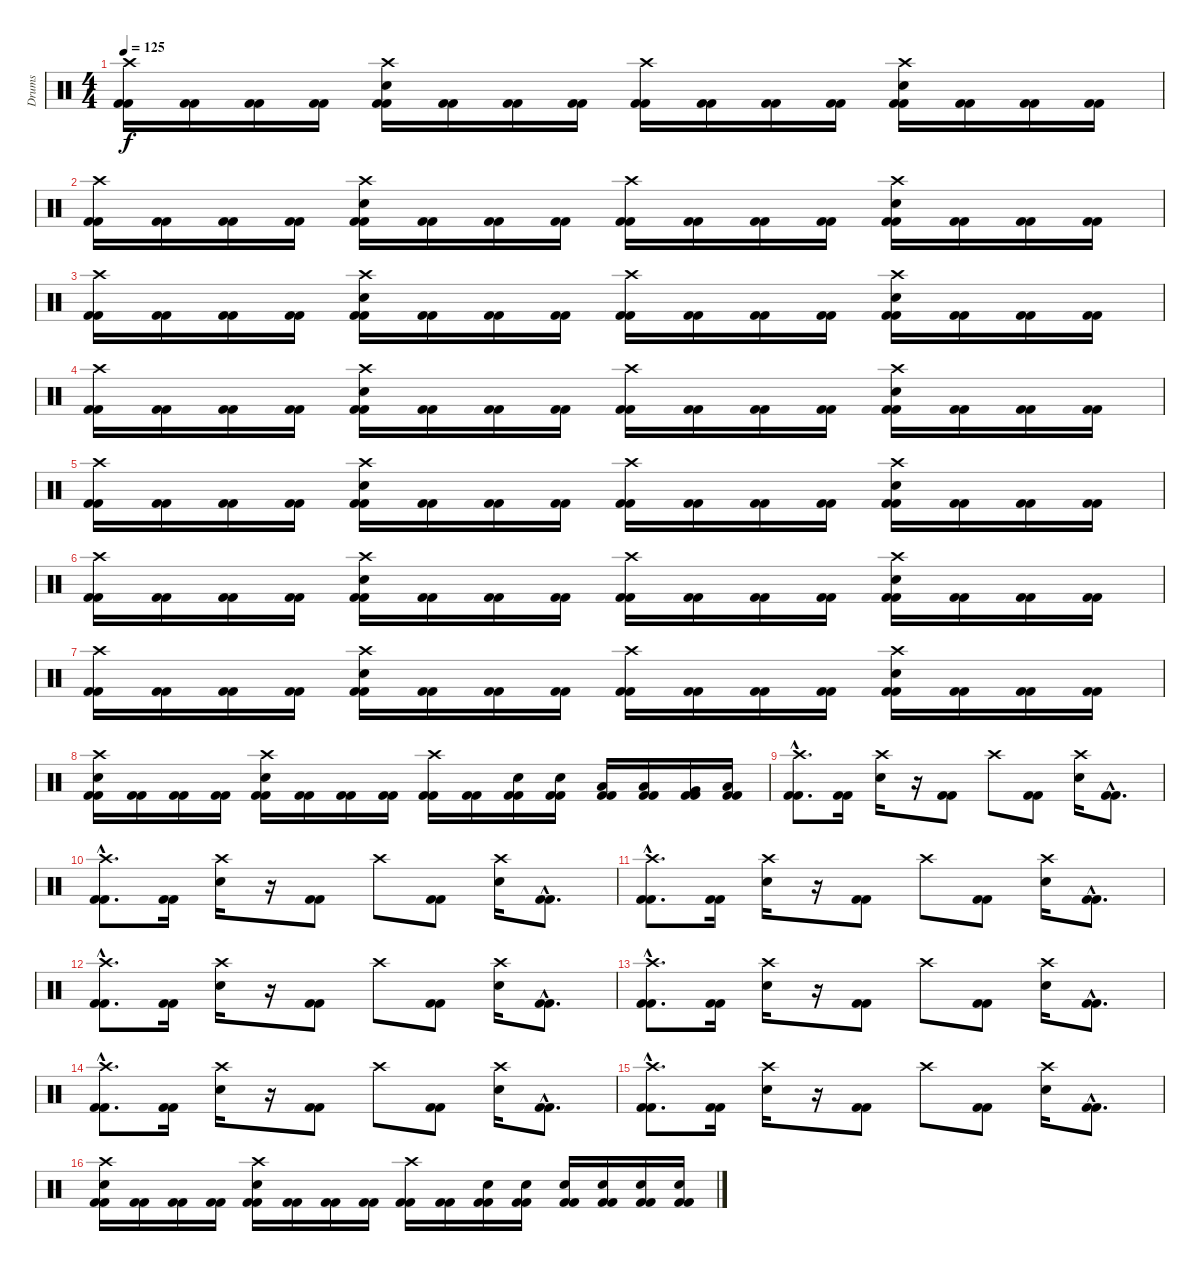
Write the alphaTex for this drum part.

\track ("Drums" "Drums") {instrument percussion}
\staff {score}
\articulation defaults
\ts (4 4)
\tempo 125
\clef neutral
\ks c
("Crash high (hit)" "Kick (hit) 2" "Kick (hit) 2").16{dy f} ("Kick (hit) 2" "Kick (hit) 2").16 ("Kick (hit) 2" "Kick (hit) 2").16 ("Kick (hit) 2" "Kick (hit) 2").16 ("Crash high (hit)" "Snare (hit) 2" "Kick (hit) 2" "Kick (hit) 2").16 ("Kick (hit) 2" "Kick (hit) 2").16 ("Kick (hit) 2" "Kick (hit) 2").16 ("Kick (hit) 2" "Kick (hit) 2").16 ("Crash high (hit)" "Kick (hit) 2" "Kick (hit) 2").16 ("Kick (hit) 2" "Kick (hit) 2").16 ("Kick (hit) 2" "Kick (hit) 2").16 ("Kick (hit) 2" "Kick (hit) 2").16 ("Crash high (hit)" "Snare (hit) 2" "Kick (hit) 2" "Kick (hit) 2").16 ("Kick (hit) 2" "Kick (hit) 2").16 ("Kick (hit) 2" "Kick (hit) 2").16 ("Kick (hit) 2" "Kick (hit) 2").16 |
("Crash high (hit)" "Kick (hit) 2" "Kick (hit) 2").16 ("Kick (hit) 2" "Kick (hit) 2").16 ("Kick (hit) 2" "Kick (hit) 2").16 ("Kick (hit) 2" "Kick (hit) 2").16 ("Crash high (hit)" "Snare (hit) 2" "Kick (hit) 2" "Kick (hit) 2").16 ("Kick (hit) 2" "Kick (hit) 2").16 ("Kick (hit) 2" "Kick (hit) 2").16 ("Kick (hit) 2" "Kick (hit) 2").16 ("Crash high (hit)" "Kick (hit) 2" "Kick (hit) 2").16 ("Kick (hit) 2" "Kick (hit) 2").16 ("Kick (hit) 2" "Kick (hit) 2").16 ("Kick (hit) 2" "Kick (hit) 2").16 ("Crash high (hit)" "Snare (hit) 2" "Kick (hit) 2" "Kick (hit) 2").16 ("Kick (hit) 2" "Kick (hit) 2").16 ("Kick (hit) 2" "Kick (hit) 2").16 ("Kick (hit) 2" "Kick (hit) 2").16 |
("Crash high (hit)" "Kick (hit) 2" "Kick (hit) 2").16 ("Kick (hit) 2" "Kick (hit) 2").16 ("Kick (hit) 2" "Kick (hit) 2").16 ("Kick (hit) 2" "Kick (hit) 2").16 ("Crash high (hit)" "Snare (hit) 2" "Kick (hit) 2" "Kick (hit) 2").16 ("Kick (hit) 2" "Kick (hit) 2").16 ("Kick (hit) 2" "Kick (hit) 2").16 ("Kick (hit) 2" "Kick (hit) 2").16 ("Crash high (hit)" "Kick (hit) 2" "Kick (hit) 2").16 ("Kick (hit) 2" "Kick (hit) 2").16 ("Kick (hit) 2" "Kick (hit) 2").16 ("Kick (hit) 2" "Kick (hit) 2").16 ("Crash high (hit)" "Snare (hit) 2" "Kick (hit) 2" "Kick (hit) 2").16 ("Kick (hit) 2" "Kick (hit) 2").16 ("Kick (hit) 2" "Kick (hit) 2").16 ("Kick (hit) 2" "Kick (hit) 2").16 |
("Crash high (hit)" "Kick (hit) 2" "Kick (hit) 2").16 ("Kick (hit) 2" "Kick (hit) 2").16 ("Kick (hit) 2" "Kick (hit) 2").16 ("Kick (hit) 2" "Kick (hit) 2").16 ("Crash high (hit)" "Snare (hit) 2" "Kick (hit) 2" "Kick (hit) 2").16 ("Kick (hit) 2" "Kick (hit) 2").16 ("Kick (hit) 2" "Kick (hit) 2").16 ("Kick (hit) 2" "Kick (hit) 2").16 ("Crash high (hit)" "Kick (hit) 2" "Kick (hit) 2").16 ("Kick (hit) 2" "Kick (hit) 2").16 ("Kick (hit) 2" "Kick (hit) 2").16 ("Kick (hit) 2" "Kick (hit) 2").16 ("Crash high (hit)" "Snare (hit) 2" "Kick (hit) 2" "Kick (hit) 2").16 ("Kick (hit) 2" "Kick (hit) 2").16 ("Kick (hit) 2" "Kick (hit) 2").16 ("Kick (hit) 2" "Kick (hit) 2").16 |
("Crash high (hit)" "Kick (hit) 2" "Kick (hit) 2").16 ("Kick (hit) 2" "Kick (hit) 2").16 ("Kick (hit) 2" "Kick (hit) 2").16 ("Kick (hit) 2" "Kick (hit) 2").16 ("Crash high (hit)" "Snare (hit) 2" "Kick (hit) 2" "Kick (hit) 2").16 ("Kick (hit) 2" "Kick (hit) 2").16 ("Kick (hit) 2" "Kick (hit) 2").16 ("Kick (hit) 2" "Kick (hit) 2").16 ("Crash high (hit)" "Kick (hit) 2" "Kick (hit) 2").16 ("Kick (hit) 2" "Kick (hit) 2").16 ("Kick (hit) 2" "Kick (hit) 2").16 ("Kick (hit) 2" "Kick (hit) 2").16 ("Crash high (hit)" "Snare (hit) 2" "Kick (hit) 2" "Kick (hit) 2").16 ("Kick (hit) 2" "Kick (hit) 2").16 ("Kick (hit) 2" "Kick (hit) 2").16 ("Kick (hit) 2" "Kick (hit) 2").16 |
("Crash high (hit)" "Kick (hit) 2" "Kick (hit) 2").16 ("Kick (hit) 2" "Kick (hit) 2").16 ("Kick (hit) 2" "Kick (hit) 2").16 ("Kick (hit) 2" "Kick (hit) 2").16 ("Crash high (hit)" "Snare (hit) 2" "Kick (hit) 2" "Kick (hit) 2").16 ("Kick (hit) 2" "Kick (hit) 2").16 ("Kick (hit) 2" "Kick (hit) 2").16 ("Kick (hit) 2" "Kick (hit) 2").16 ("Crash high (hit)" "Kick (hit) 2" "Kick (hit) 2").16 ("Kick (hit) 2" "Kick (hit) 2").16 ("Kick (hit) 2" "Kick (hit) 2").16 ("Kick (hit) 2" "Kick (hit) 2").16 ("Crash high (hit)" "Snare (hit) 2" "Kick (hit) 2" "Kick (hit) 2").16 ("Kick (hit) 2" "Kick (hit) 2").16 ("Kick (hit) 2" "Kick (hit) 2").16 ("Kick (hit) 2" "Kick (hit) 2").16 |
("Crash high (hit)" "Kick (hit) 2" "Kick (hit) 2").16 ("Kick (hit) 2" "Kick (hit) 2").16 ("Kick (hit) 2" "Kick (hit) 2").16 ("Kick (hit) 2" "Kick (hit) 2").16 ("Crash high (hit)" "Snare (hit) 2" "Kick (hit) 2" "Kick (hit) 2").16 ("Kick (hit) 2" "Kick (hit) 2").16 ("Kick (hit) 2" "Kick (hit) 2").16 ("Kick (hit) 2" "Kick (hit) 2").16 ("Crash high (hit)" "Kick (hit) 2" "Kick (hit) 2").16 ("Kick (hit) 2" "Kick (hit) 2").16 ("Kick (hit) 2" "Kick (hit) 2").16 ("Kick (hit) 2" "Kick (hit) 2").16 ("Crash high (hit)" "Snare (hit) 2" "Kick (hit) 2" "Kick (hit) 2").16 ("Kick (hit) 2" "Kick (hit) 2").16 ("Kick (hit) 2" "Kick (hit) 2").16 ("Kick (hit) 2" "Kick (hit) 2").16 |
("Crash high (hit)" "Snare (hit) 2" "Kick (hit) 2" "Kick (hit) 2").16 ("Kick (hit) 2" "Kick (hit) 2").16 ("Kick (hit) 2" "Kick (hit) 2").16 ("Kick (hit) 2" "Kick (hit) 2").16 ("Crash high (hit)" "Snare (hit) 2" "Kick (hit) 2" "Kick (hit) 2").16 ("Kick (hit) 2" "Kick (hit) 2").16 ("Kick (hit) 2" "Kick (hit) 2").16 ("Kick (hit) 2" "Kick (hit) 2").16 ("Crash high (hit)" "Kick (hit) 2" "Kick (hit) 2").16 ("Kick (hit) 2" "Kick (hit) 2").16 ("Snare (hit) 2" "Kick (hit) 2" "Kick (hit) 2").16 ("Snare (hit) 2" "Kick (hit) 2" "Kick (hit) 2").16 ("Low Tom (hit)" "Kick (hit) 2" "Kick (hit) 2").16 ("Low Tom (hit)" "Kick (hit) 2" "Kick (hit) 2").16 ("Very Low Tom (hit)" "Kick (hit) 2" "Kick (hit) 2").16 ("Low Floor Tom (hit)" "Kick (hit) 2" "Kick (hit) 2").16 |
("Crash high (hit)"{hac} "Kick (hit) 2"{hac} "Kick (hit) 2"{hac}).8{d} ("Kick (hit) 2" "Kick (hit) 2").16 ("Crash high (hit)" "Snare (hit) 2").16 r.16 ("Kick (hit) 2" "Kick (hit) 2").8 "Crash high (hit)".8 ("Kick (hit) 2" "Kick (hit) 2").8 ("Crash high (hit)" "Snare (hit) 2").16 ("Kick (hit) 2"{hac} "Kick (hit) 2"{hac}).8{d} |
("Crash high (hit)"{hac} "Kick (hit) 2"{hac} "Kick (hit) 2"{hac}).8{d} ("Kick (hit) 2" "Kick (hit) 2").16 ("Crash high (hit)" "Snare (hit) 2").16 r.16 ("Kick (hit) 2" "Kick (hit) 2").8 "Crash high (hit)".8 ("Kick (hit) 2" "Kick (hit) 2").8 ("Crash high (hit)" "Snare (hit) 2").16 ("Kick (hit) 2"{hac} "Kick (hit) 2"{hac}).8{d} |
("Crash high (hit)"{hac} "Kick (hit) 2"{hac} "Kick (hit) 2"{hac}).8{d} ("Kick (hit) 2" "Kick (hit) 2").16 ("Crash high (hit)" "Snare (hit) 2").16 r.16 ("Kick (hit) 2" "Kick (hit) 2").8 "Crash high (hit)".8 ("Kick (hit) 2" "Kick (hit) 2").8 ("Crash high (hit)" "Snare (hit) 2").16 ("Kick (hit) 2"{hac} "Kick (hit) 2"{hac}).8{d} |
("Crash high (hit)"{hac} "Kick (hit) 2"{hac} "Kick (hit) 2"{hac}).8{d} ("Kick (hit) 2" "Kick (hit) 2").16 ("Crash high (hit)" "Snare (hit) 2").16 r.16 ("Kick (hit) 2" "Kick (hit) 2").8 "Crash high (hit)".8 ("Kick (hit) 2" "Kick (hit) 2").8 ("Crash high (hit)" "Snare (hit) 2").16 ("Kick (hit) 2"{hac} "Kick (hit) 2"{hac}).8{d} |
("Crash high (hit)"{hac} "Kick (hit) 2"{hac} "Kick (hit) 2"{hac}).8{d} ("Kick (hit) 2" "Kick (hit) 2").16 ("Crash high (hit)" "Snare (hit) 2").16 r.16 ("Kick (hit) 2" "Kick (hit) 2").8 "Crash high (hit)".8 ("Kick (hit) 2" "Kick (hit) 2").8 ("Crash high (hit)" "Snare (hit) 2").16 ("Kick (hit) 2"{hac} "Kick (hit) 2"{hac}).8{d} |
("Crash high (hit)"{hac} "Kick (hit) 2"{hac} "Kick (hit) 2"{hac}).8{d} ("Kick (hit) 2" "Kick (hit) 2").16 ("Crash high (hit)" "Snare (hit) 2").16 r.16 ("Kick (hit) 2" "Kick (hit) 2").8 "Crash high (hit)".8 ("Kick (hit) 2" "Kick (hit) 2").8 ("Crash high (hit)" "Snare (hit) 2").16 ("Kick (hit) 2"{hac} "Kick (hit) 2"{hac}).8{d} |
("Crash high (hit)"{hac} "Kick (hit) 2"{hac} "Kick (hit) 2"{hac}).8{d} ("Kick (hit) 2" "Kick (hit) 2").16 ("Crash high (hit)" "Snare (hit) 2").16 r.16 ("Kick (hit) 2" "Kick (hit) 2").8 "Crash high (hit)".8 ("Kick (hit) 2" "Kick (hit) 2").8 ("Crash high (hit)" "Snare (hit) 2").16 ("Kick (hit) 2"{hac} "Kick (hit) 2"{hac}).8{d} |
("Crash high (hit)" "Snare (hit) 2" "Kick (hit) 2" "Kick (hit) 2").16 ("Kick (hit) 2" "Kick (hit) 2").16 ("Kick (hit) 2" "Kick (hit) 2").16 ("Kick (hit) 2" "Kick (hit) 2").16 ("Crash high (hit)" "Snare (hit) 2" "Kick (hit) 2" "Kick (hit) 2").16 ("Kick (hit) 2" "Kick (hit) 2").16 ("Kick (hit) 2" "Kick (hit) 2").16 ("Kick (hit) 2" "Kick (hit) 2").16 ("Crash high (hit)" "Kick (hit) 2" "Kick (hit) 2").16 ("Kick (hit) 2" "Kick (hit) 2").16 ("Snare (hit) 2" "Kick (hit) 2" "Kick (hit) 2").16 ("Snare (hit) 2" "Kick (hit) 2" "Kick (hit) 2").16 ("Snare (hit) 2" "Kick (hit) 2" "Kick (hit) 2").16 ("Snare (hit) 2" "Kick (hit) 2" "Kick (hit) 2").16 ("Snare (hit) 2" "Kick (hit) 2" "Kick (hit) 2").16 ("Snare (hit) 2" "Kick (hit) 2" "Kick (hit) 2").16
